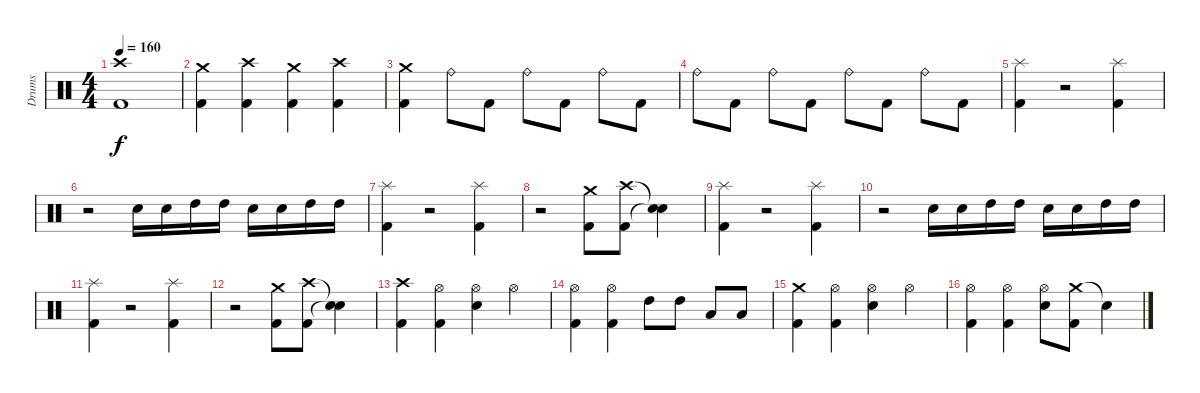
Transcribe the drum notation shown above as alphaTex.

\track ("Drums" "Drums") {instrument percussion}
\staff {score}
\articulation defaults
\ts (4 4)
\tempo 160
\clef neutral
\ks c
("Crash high (hit)" "Kick (hit) 2").1{dy f} |
("Crash medium (hit)" "Kick (hit) 2").4 ("Crash high (hit)" "Kick (hit) 2").4 ("Crash medium (hit)" "Kick (hit) 2").4 ("Crash high (hit)" "Kick (hit) 2").4 |
("Crash medium (hit)" "Kick (hit) 2").4 "Ride (bell)".8 "Kick (hit) 2".8 "Ride (bell)".8 "Kick (hit) 2".8 "Ride (bell)".8 "Kick (hit) 2".8 |
"Ride (bell)".8 "Kick (hit) 2".8 "Ride (bell)".8 "Kick (hit) 2".8 "Ride (bell)".8 "Kick (hit) 2".8 "Ride (bell)".8 "Kick (hit) 2".8 |
("Splash (hit)" "Kick (hit) 2").4 r.2 ("Splash (hit)" "Kick (hit) 2").4 |
r.2 "Electric Snare (hit)".16 "Electric Snare (hit)".16 "High Tom (hit)".16 "High Tom (hit)".16 "Electric Snare (hit)".16 "Electric Snare (hit)".16 "High Tom (hit)".16 "High Tom (hit)".16 |
("Splash (hit)" "Kick (hit) 2").4 r.2 ("Splash (hit)" "Kick (hit) 2").4 |
r.2 ("Crash medium (hit)" "Kick (hit) 2").8 ("Crash high (hit)" "Kick (hit) 2").8 ("Snare (hit)"{t} "Snare (hit)"{t}).4 |
("Splash (hit)" "Kick (hit) 2").4 r.2 ("Splash (hit)" "Kick (hit) 2").4 |
r.2 "Electric Snare (hit)".16 "Electric Snare (hit)".16 "High Tom (hit)".16 "High Tom (hit)".16 "Electric Snare (hit)".16 "Electric Snare (hit)".16 "High Tom (hit)".16 "High Tom (hit)".16 |
("Splash (hit)" "Kick (hit) 2").4 r.2 ("Splash (hit)" "Kick (hit) 2").4 |
r.2 ("Crash medium (hit)" "Kick (hit) 2").8 ("Crash high (hit)" "Kick (hit) 2").8 ("Snare (hit)"{t} "Snare (hit)"{t}).4 |
("Crash high (hit)" "Kick (hit) 2").4 ("Hi-Hat (open)" "Kick (hit) 2").4 ("Hi-Hat (open)" "Electric Snare (hit)").4 "Hi-Hat (open)".4 |
("Hi-Hat (open)" "Kick (hit) 2").4 ("Hi-Hat (open)" "Kick (hit) 2").4 "High Tom (hit)".8 "High Tom (hit)".8 "Low Tom (hit)".8 "Low Tom (hit)".8 |
("Crash medium (hit)" "Kick (hit) 2").4 ("Hi-Hat (open)" "Kick (hit) 2").4 ("Hi-Hat (open)" "Electric Snare (hit)").4 "Hi-Hat (open)".4 |
("Hi-Hat (open)" "Kick (hit) 2").4 ("Hi-Hat (open)" "Kick (hit) 2").4 ("Hi-Hat (open)" "Electric Snare (hit)").8 ("Crash medium (hit)" "Kick (hit) 2").8 "Snare (hit)"{t}.4
